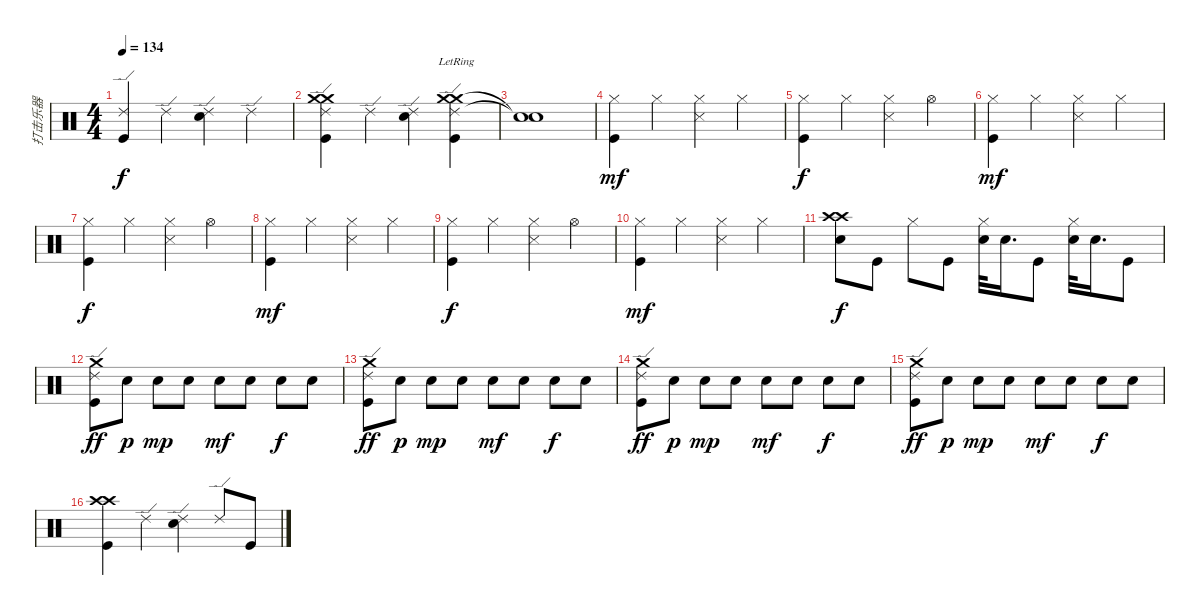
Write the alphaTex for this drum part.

\track ("打击乐器" "打击乐器") {instrument percussion}
\staff {score}
\articulation defaults
\ts (4 4)
\tempo 134
\clef neutral
\ks c
("Ride (edge) 2" "Kick (hit)").4{dy f} "Ride (edge) 2".4 ("Ride (edge) 2" "Electric Snare (hit)").4 "Ride (edge) 2".4 |
("Ride (edge) 2" "Crash medium (hit)" "Crash medium (hit)" "Kick (hit)").4 "Ride (edge) 2".4 ("Ride (edge) 2" "Electric Snare (hit)").4 ("Ride (edge) 2" "Crash medium (hit)"{lr} "Crash medium (hit)"{lr} "Kick (hit)").4 |
("Snare (hit)"{t} "Snare (hit)"{t}).1 |
("Hi-Hat (closed)" "Kick (hit)").4{dy mf} "Hi-Hat (closed)".4 ("Hi-Hat (closed)" "Snare (side stick) 3").4 "Hi-Hat (closed)".4 |
("Hi-Hat (closed)" "Kick (hit)").4{dy f} "Hi-Hat (closed)".4 ("Hi-Hat (closed)" "Snare (side stick) 3").4 "Hi-Hat (open)".4 |
("Hi-Hat (closed)" "Kick (hit)").4{dy mf} "Hi-Hat (closed)".4 ("Hi-Hat (closed)" "Snare (side stick) 3").4 "Hi-Hat (closed)".4 |
("Hi-Hat (closed)" "Kick (hit)").4{dy f} "Hi-Hat (closed)".4 ("Hi-Hat (closed)" "Snare (side stick) 3").4 "Hi-Hat (open)".4 |
("Hi-Hat (closed)" "Kick (hit)").4{dy mf} "Hi-Hat (closed)".4 ("Hi-Hat (closed)" "Snare (side stick) 3").4 "Hi-Hat (closed)".4 |
("Hi-Hat (closed)" "Kick (hit)").4{dy f} "Hi-Hat (closed)".4 ("Hi-Hat (closed)" "Snare (side stick) 3").4 "Hi-Hat (open)".4 |
("Hi-Hat (closed)" "Kick (hit)").4{dy mf} "Hi-Hat (closed)".4 ("Hi-Hat (closed)" "Snare (side stick) 3").4 "Hi-Hat (closed)".4 |
("Crash high (hit)" "Crash high (hit)" "Electric Snare (hit)").8{dy f} "Kick (hit)".8 "Hi-Hat (closed)".8 "Kick (hit)".8 ("Hi-Hat (closed)" "Electric Snare (hit)").32 "Electric Snare (hit)".16{d} "Kick (hit)".8 ("Hi-Hat (closed)" "Electric Snare (hit)").32 "Electric Snare (hit)".16{d} "Kick (hit)".8 |
("Crash medium (hit)" "Ride (edge) 2" "Kick (hit)").8{dy ff} "Electric Snare (hit)".8{dy p} "Electric Snare (hit)".8{dy mp} "Electric Snare (hit)".8 "Electric Snare (hit)".8{dy mf} "Electric Snare (hit)".8 "Electric Snare (hit)".8{dy f} "Electric Snare (hit)".8 |
("Crash medium (hit)" "Ride (edge) 2" "Kick (hit)").8{dy ff} "Electric Snare (hit)".8{dy p} "Electric Snare (hit)".8{dy mp} "Electric Snare (hit)".8 "Electric Snare (hit)".8{dy mf} "Electric Snare (hit)".8 "Electric Snare (hit)".8{dy f} "Electric Snare (hit)".8 |
("Crash medium (hit)" "Ride (edge) 2" "Kick (hit)").8{dy ff} "Electric Snare (hit)".8{dy p} "Electric Snare (hit)".8{dy mp} "Electric Snare (hit)".8 "Electric Snare (hit)".8{dy mf} "Electric Snare (hit)".8 "Electric Snare (hit)".8{dy f} "Electric Snare (hit)".8 |
("Crash medium (hit)" "Ride (edge) 2" "Kick (hit)").8{dy ff} "Electric Snare (hit)".8{dy p} "Electric Snare (hit)".8{dy mp} "Electric Snare (hit)".8 "Electric Snare (hit)".8{dy mf} "Electric Snare (hit)".8 "Electric Snare (hit)".8{dy f} "Electric Snare (hit)".8 |
("Crash high (hit)" "Crash high (hit)" "Kick (hit)").4 "Ride (edge) 2".4 ("Ride (edge) 2" "Electric Snare (hit)").4 "Ride (edge) 2".8 "Kick (hit)".8
